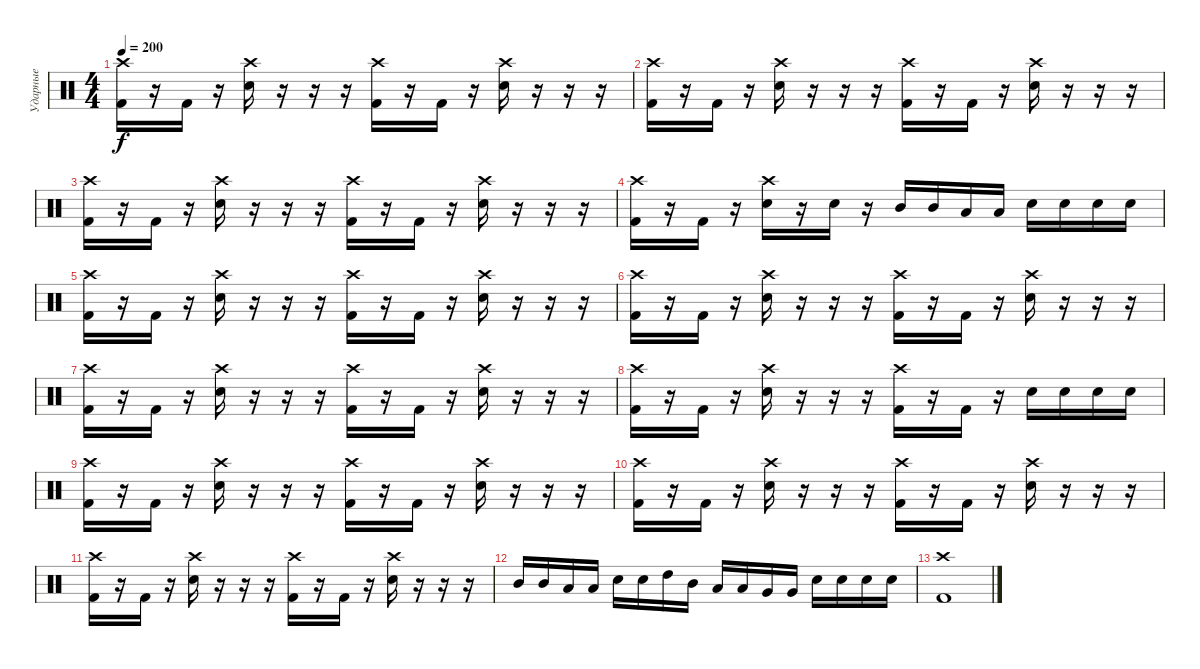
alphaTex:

\track ("Ударные" "Ударные") {instrument percussion}
\staff {score}
\articulation defaults
\ts (4 4)
\tempo 200
\clef neutral
\ks c
("Crash high (hit)" "Kick (hit) 2").16{dy f} r.16 "Kick (hit) 2".16 r.16 ("Crash high (hit)" "Electric Snare (hit)").16 r.16 r.16 r.16 ("Crash high (hit)" "Kick (hit) 2").16 r.16 "Kick (hit) 2".16 r.16 ("Crash high (hit)" "Electric Snare (hit)").16 r.16 r.16 r.16 |
("Crash high (hit)" "Kick (hit) 2").16 r.16 "Kick (hit) 2".16 r.16 ("Crash high (hit)" "Electric Snare (hit)").16 r.16 r.16 r.16 ("Crash high (hit)" "Kick (hit) 2").16 r.16 "Kick (hit) 2".16 r.16 ("Crash high (hit)" "Electric Snare (hit)").16 r.16 r.16 r.16 |
("Crash high (hit)" "Kick (hit) 2").16 r.16 "Kick (hit) 2".16 r.16 ("Crash high (hit)" "Electric Snare (hit)").16 r.16 r.16 r.16 ("Crash high (hit)" "Kick (hit) 2").16 r.16 "Kick (hit) 2".16 r.16 ("Crash high (hit)" "Electric Snare (hit)").16 r.16 r.16 r.16 |
("Crash high (hit)" "Kick (hit) 2").16 r.16 "Kick (hit) 2".16 r.16 ("Crash high (hit)" "Electric Snare (hit)").16 r.16 "Electric Snare (hit)".16 r.16 "Mid Tom (hit)".16 "Mid Tom (hit)".16 "Low Tom (hit)".16 "Low Tom (hit)".16 "Electric Snare (hit)".16 "Electric Snare (hit)".16 "Electric Snare (hit)".16 "Electric Snare (hit)".16 |
("Crash high (hit)" "Kick (hit) 2").16 r.16 "Kick (hit) 2".16 r.16 ("Crash high (hit)" "Electric Snare (hit)").16 r.16 r.16 r.16 ("Crash high (hit)" "Kick (hit) 2").16 r.16 "Kick (hit) 2".16 r.16 ("Crash high (hit)" "Electric Snare (hit)").16 r.16 r.16 r.16 |
("Crash high (hit)" "Kick (hit) 2").16 r.16 "Kick (hit) 2".16 r.16 ("Crash high (hit)" "Electric Snare (hit)").16 r.16 r.16 r.16 ("Crash high (hit)" "Kick (hit) 2").16 r.16 "Kick (hit) 2".16 r.16 ("Crash high (hit)" "Electric Snare (hit)").16 r.16 r.16 r.16 |
("Crash high (hit)" "Kick (hit) 2").16 r.16 "Kick (hit) 2".16 r.16 ("Crash high (hit)" "Electric Snare (hit)").16 r.16 r.16 r.16 ("Crash high (hit)" "Kick (hit) 2").16 r.16 "Kick (hit) 2".16 r.16 ("Crash high (hit)" "Electric Snare (hit)").16 r.16 r.16 r.16 |
("Crash high (hit)" "Kick (hit) 2").16 r.16 "Kick (hit) 2".16 r.16 ("Crash high (hit)" "Electric Snare (hit)").16 r.16 r.16 r.16 ("Crash high (hit)" "Kick (hit) 2").16 r.16 "Kick (hit) 2".16 r.16 "Electric Snare (hit)".16 "Electric Snare (hit)".16 "Electric Snare (hit)".16 "Electric Snare (hit)".16 |
("Crash high (hit)" "Kick (hit) 2").16 r.16 "Kick (hit) 2".16 r.16 ("Crash high (hit)" "Electric Snare (hit)").16 r.16 r.16 r.16 ("Crash high (hit)" "Kick (hit) 2").16 r.16 "Kick (hit) 2".16 r.16 ("Crash high (hit)" "Electric Snare (hit)").16 r.16 r.16 r.16 |
("Crash high (hit)" "Kick (hit) 2").16 r.16 "Kick (hit) 2".16 r.16 ("Crash high (hit)" "Electric Snare (hit)").16 r.16 r.16 r.16 ("Crash high (hit)" "Kick (hit) 2").16 r.16 "Kick (hit) 2".16 r.16 ("Crash high (hit)" "Electric Snare (hit)").16 r.16 r.16 r.16 |
("Crash high (hit)" "Kick (hit) 2").16 r.16 "Kick (hit) 2".16 r.16 ("Crash high (hit)" "Electric Snare (hit)").16 r.16 r.16 r.16 ("Crash high (hit)" "Kick (hit) 2").16 r.16 "Kick (hit) 2".16 r.16 ("Crash high (hit)" "Electric Snare (hit)").16 r.16 r.16 r.16 |
"Mid Tom (hit)".16 "Mid Tom (hit)".16 "Low Tom (hit)".16 "Low Tom (hit)".16 "Electric Snare (hit)".16 "Electric Snare (hit)".16 "High Tom (hit)".16 "Mid Tom (hit)".16 "Low Tom (hit)".16 "Low Tom (hit)".16 "Very Low Tom (hit)".16 "Very Low Tom (hit)".16 "Electric Snare (hit)".16 "Electric Snare (hit)".16 "Electric Snare (hit)".16 "Electric Snare (hit)".16 |
("Crash high (hit)" "Kick (hit) 2").1
